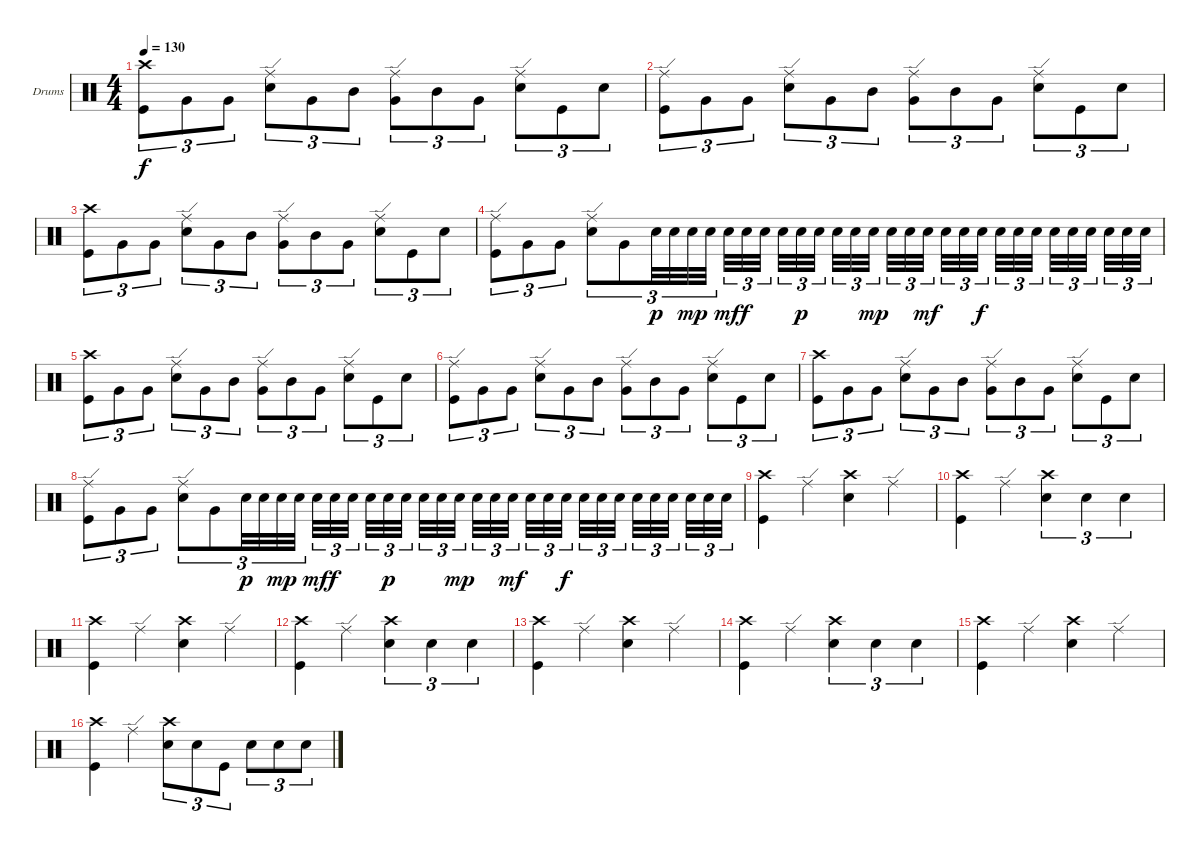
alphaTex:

\defaultSystemsLayout 4
\bracketExtendMode groupsimilarinstruments
\firstSystemTrackNameOrientation horizontal
\otherSystemsTrackNameOrientation horizontal
\track ("Drumkit" "Drums") {instrument percussion}
\staff {score}
\articulation defaults
\ts (4 4)
\tempo 130
\clef neutral
\ks c
("Kick (hit)" "Crash high (hit)").8{tu (3 2) dy f} "Very Low Tom (hit)".8{tu (3 2)} "Very Low Tom (hit)".8{tu (3 2)} ("Snare (hit) 2" "Ride (edge)").8{tu (3 2)} "Very Low Tom (hit)".8{tu (3 2)} "Mid Tom (hit)".8{tu (3 2)} ("Very Low Tom (hit)" "Ride (edge)").8{tu (3 2)} "Mid Tom (hit)".8{tu (3 2)} "Very Low Tom (hit)".8{tu (3 2)} ("Snare (hit) 2" "Ride (edge)").8{tu (3 2)} "Kick (hit)".8{tu (3 2)} "Snare (hit) 2".8{tu (3 2)} |
("Kick (hit)" "Ride (edge)").8{tu (3 2)} "Very Low Tom (hit)".8{tu (3 2)} "Very Low Tom (hit)".8{tu (3 2)} ("Snare (hit) 2" "Ride (edge)").8{tu (3 2)} "Very Low Tom (hit)".8{tu (3 2)} "Mid Tom (hit)".8{tu (3 2)} ("Very Low Tom (hit)" "Ride (edge)").8{tu (3 2)} "Mid Tom (hit)".8{tu (3 2)} "Very Low Tom (hit)".8{tu (3 2)} ("Snare (hit) 2" "Ride (edge)").8{tu (3 2)} "Kick (hit)".8{tu (3 2)} "Snare (hit) 2".8{tu (3 2)} |
("Kick (hit)" "Crash high (hit)").8{tu (3 2)} "Very Low Tom (hit)".8{tu (3 2)} "Very Low Tom (hit)".8{tu (3 2)} ("Snare (hit) 2" "Ride (edge)").8{tu (3 2)} "Very Low Tom (hit)".8{tu (3 2)} "Mid Tom (hit)".8{tu (3 2)} ("Very Low Tom (hit)" "Ride (edge)").8{tu (3 2)} "Mid Tom (hit)".8{tu (3 2)} "Very Low Tom (hit)".8{tu (3 2)} ("Snare (hit) 2" "Ride (edge)").8{tu (3 2)} "Kick (hit)".8{tu (3 2)} "Snare (hit) 2".8{tu (3 2)} |
("Kick (hit)" "Ride (edge)").8{tu (3 2)} "Very Low Tom (hit)".8{tu (3 2)} "Very Low Tom (hit)".8{tu (3 2)} ("Snare (hit) 2" "Ride (edge)").8{tu (3 2)} "Very Low Tom (hit)".8{tu (3 2)} "Snare (hit) 2".32{tu (3 2) dy p} "Snare (hit) 2".32{tu (3 2)} "Snare (hit) 2".32{tu (3 2) dy mp} "Snare (hit) 2".32{tu (3 2)} "Snare (hit) 2".32{tu (3 2) dy mf} "Snare (hit) 2".32{tu (3 2) dy f} "Snare (hit) 2".32{tu (3 2)} "Snare (hit) 2".32{tu (3 2)} "Snare (hit) 2".32{tu (3 2) dy p} "Snare (hit) 2".32{tu (3 2)} "Snare (hit) 2".32{tu (3 2)} "Snare (hit) 2".32{tu (3 2)} "Snare (hit) 2".32{tu (3 2) dy mp} "Snare (hit) 2".32{tu (3 2)} "Snare (hit) 2".32{tu (3 2)} "Snare (hit) 2".32{tu (3 2) dy mf} "Snare (hit) 2".32{tu (3 2)} "Snare (hit) 2".32{tu (3 2)} "Snare (hit) 2".32{tu (3 2) dy f} "Snare (hit) 2".32{tu (3 2)} "Snare (hit) 2".32{tu (3 2)} "Snare (hit) 2".32{tu (3 2)} "Snare (hit) 2".32{tu (3 2)} "Snare (hit) 2".32{tu (3 2)} "Snare (hit) 2".32{tu (3 2)} "Snare (hit) 2".32{tu (3 2)} "Snare (hit) 2".32{tu (3 2)} "Snare (hit) 2".32{tu (3 2)} |
("Kick (hit)" "Crash high (hit)").8{tu (3 2)} "Very Low Tom (hit)".8{tu (3 2)} "Very Low Tom (hit)".8{tu (3 2)} ("Snare (hit) 2" "Ride (edge)").8{tu (3 2)} "Very Low Tom (hit)".8{tu (3 2)} "Mid Tom (hit)".8{tu (3 2)} ("Very Low Tom (hit)" "Ride (edge)").8{tu (3 2)} "Mid Tom (hit)".8{tu (3 2)} "Very Low Tom (hit)".8{tu (3 2)} ("Snare (hit) 2" "Ride (edge)").8{tu (3 2)} "Kick (hit)".8{tu (3 2)} "Snare (hit) 2".8{tu (3 2)} |
("Kick (hit)" "Ride (edge)").8{tu (3 2)} "Very Low Tom (hit)".8{tu (3 2)} "Very Low Tom (hit)".8{tu (3 2)} ("Snare (hit) 2" "Ride (edge)").8{tu (3 2)} "Very Low Tom (hit)".8{tu (3 2)} "Mid Tom (hit)".8{tu (3 2)} ("Very Low Tom (hit)" "Ride (edge)").8{tu (3 2)} "Mid Tom (hit)".8{tu (3 2)} "Very Low Tom (hit)".8{tu (3 2)} ("Snare (hit) 2" "Ride (edge)").8{tu (3 2)} "Kick (hit)".8{tu (3 2)} "Snare (hit) 2".8{tu (3 2)} |
("Kick (hit)" "Crash high (hit)").8{tu (3 2)} "Very Low Tom (hit)".8{tu (3 2)} "Very Low Tom (hit)".8{tu (3 2)} ("Snare (hit) 2" "Ride (edge)").8{tu (3 2)} "Very Low Tom (hit)".8{tu (3 2)} "Mid Tom (hit)".8{tu (3 2)} ("Very Low Tom (hit)" "Ride (edge)").8{tu (3 2)} "Mid Tom (hit)".8{tu (3 2)} "Very Low Tom (hit)".8{tu (3 2)} ("Snare (hit) 2" "Ride (edge)").8{tu (3 2)} "Kick (hit)".8{tu (3 2)} "Snare (hit) 2".8{tu (3 2)} |
("Kick (hit)" "Ride (edge)").8{tu (3 2)} "Very Low Tom (hit)".8{tu (3 2)} "Very Low Tom (hit)".8{tu (3 2)} ("Snare (hit) 2" "Ride (edge)").8{tu (3 2)} "Very Low Tom (hit)".8{tu (3 2)} "Snare (hit) 2".32{tu (3 2) dy p} "Snare (hit) 2".32{tu (3 2)} "Snare (hit) 2".32{tu (3 2) dy mp} "Snare (hit) 2".32{tu (3 2)} "Snare (hit) 2".32{tu (3 2) dy mf} "Snare (hit) 2".32{tu (3 2) dy f} "Snare (hit) 2".32{tu (3 2)} "Snare (hit) 2".32{tu (3 2)} "Snare (hit) 2".32{tu (3 2) dy p} "Snare (hit) 2".32{tu (3 2)} "Snare (hit) 2".32{tu (3 2)} "Snare (hit) 2".32{tu (3 2)} "Snare (hit) 2".32{tu (3 2) dy mp} "Snare (hit) 2".32{tu (3 2)} "Snare (hit) 2".32{tu (3 2)} "Snare (hit) 2".32{tu (3 2) dy mf} "Snare (hit) 2".32{tu (3 2)} "Snare (hit) 2".32{tu (3 2)} "Snare (hit) 2".32{tu (3 2) dy f} "Snare (hit) 2".32{tu (3 2)} "Snare (hit) 2".32{tu (3 2)} "Snare (hit) 2".32{tu (3 2)} "Snare (hit) 2".32{tu (3 2)} "Snare (hit) 2".32{tu (3 2)} "Snare (hit) 2".32{tu (3 2)} "Snare (hit) 2".32{tu (3 2)} "Snare (hit) 2".32{tu (3 2)} "Snare (hit) 2".32{tu (3 2)} |
("Kick (hit)" "Crash high (hit)").4 "Ride (edge)".4 ("Crash high (hit)" "Snare (hit) 2").4 "Ride (edge)".4 |
("Kick (hit)" "Crash high (hit)").4 "Ride (edge)".4 ("Snare (hit) 2" "Crash high (hit)").4{tu (3 2)} "Snare (hit) 2".4{tu (3 2)} "Snare (hit) 2".4{tu (3 2)} |
("Kick (hit)" "Crash high (hit)").4 "Ride (edge)".4 ("Crash high (hit)" "Snare (hit) 2").4 "Ride (edge)".4 |
("Kick (hit)" "Crash high (hit)").4 "Ride (edge)".4 ("Snare (hit) 2" "Crash high (hit)").4{tu (3 2)} "Snare (hit) 2".4{tu (3 2)} "Snare (hit) 2".4{tu (3 2)} |
("Kick (hit)" "Crash high (hit)").4 "Ride (edge)".4 ("Crash high (hit)" "Snare (hit) 2").4 "Ride (edge)".4 |
("Kick (hit)" "Crash high (hit)").4 "Ride (edge)".4 ("Snare (hit) 2" "Crash high (hit)").4{tu (3 2)} "Snare (hit) 2".4{tu (3 2)} "Snare (hit) 2".4{tu (3 2)} |
("Kick (hit)" "Crash high (hit)").4 "Ride (edge)".4 ("Crash high (hit)" "Snare (hit) 2").4 "Ride (edge)".4 |
("Kick (hit)" "Crash high (hit)").4 "Ride (edge)".4 ("Snare (hit) 2" "Crash high (hit)").8{tu (3 2)} "Snare (hit) 2".8{tu (3 2)} "Kick (hit)".8{tu (3 2)} "Snare (hit) 2".8{tu (3 2)} "Snare (hit) 2".8{tu (3 2)} "Snare (hit) 2".8{tu (3 2)}
